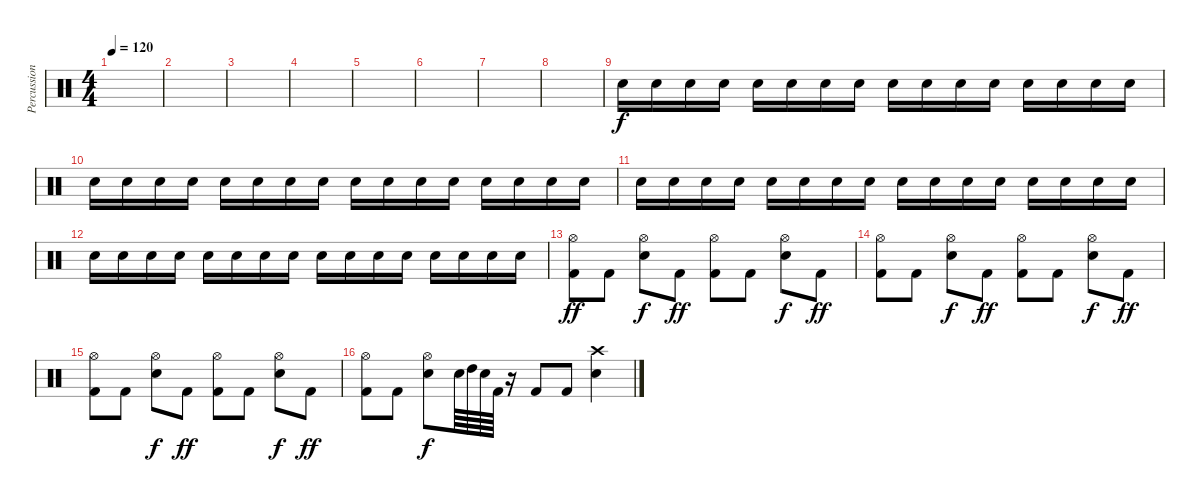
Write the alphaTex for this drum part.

\track ("Percussion" "Percussion") {instrument percussion}
\staff {score}
\articulation defaults
\ts (4 4)
\tempo 120
\clef neutral
\ks c
|
|
|
|
|
|
|
|
"Electric Snare (hit)".16 "Electric Snare (hit)".16 "Electric Snare (hit)".16 "Electric Snare (hit)".16 "Electric Snare (hit)".16 "Electric Snare (hit)".16 "Electric Snare (hit)".16 "Electric Snare (hit)".16 "Electric Snare (hit)".16 "Electric Snare (hit)".16 "Electric Snare (hit)".16 "Electric Snare (hit)".16 "Electric Snare (hit)".16 "Electric Snare (hit)".16 "Electric Snare (hit)".16 "Electric Snare (hit)".16 |
"Electric Snare (hit)".16 "Electric Snare (hit)".16 "Electric Snare (hit)".16 "Electric Snare (hit)".16 "Electric Snare (hit)".16 "Electric Snare (hit)".16 "Electric Snare (hit)".16 "Electric Snare (hit)".16 "Electric Snare (hit)".16 "Electric Snare (hit)".16 "Electric Snare (hit)".16 "Electric Snare (hit)".16 "Electric Snare (hit)".16 "Electric Snare (hit)".16 "Electric Snare (hit)".16 "Electric Snare (hit)".16 |
"Electric Snare (hit)".16 "Electric Snare (hit)".16 "Electric Snare (hit)".16 "Electric Snare (hit)".16 "Electric Snare (hit)".16 "Electric Snare (hit)".16 "Electric Snare (hit)".16 "Electric Snare (hit)".16 "Electric Snare (hit)".16 "Electric Snare (hit)".16 "Electric Snare (hit)".16 "Electric Snare (hit)".16 "Electric Snare (hit)".16 "Electric Snare (hit)".16 "Electric Snare (hit)".16 "Electric Snare (hit)".16 |
"Electric Snare (hit)".16 "Electric Snare (hit)".16 "Electric Snare (hit)".16 "Electric Snare (hit)".16 "Electric Snare (hit)".16 "Electric Snare (hit)".16 "Electric Snare (hit)".16 "Electric Snare (hit)".16 "Electric Snare (hit)".16 "Electric Snare (hit)".16 "Electric Snare (hit)".16 "Electric Snare (hit)".16 "Electric Snare (hit)".16 "Electric Snare (hit)".16 "Electric Snare (hit)".16 "Electric Snare (hit)".16 |
("Hi-Hat (open)" "Kick (hit) 2").8{dy ff} "Kick (hit) 2".8 ("Hi-Hat (open)" "Electric Snare (hit)").8{dy f} "Kick (hit) 2".8{dy ff} ("Hi-Hat (open)" "Kick (hit) 2").8 "Kick (hit) 2".8 ("Hi-Hat (open)" "Electric Snare (hit)").8{dy f} "Kick (hit) 2".8{dy ff} |
("Hi-Hat (open)" "Kick (hit) 2").8 "Kick (hit) 2".8 ("Hi-Hat (open)" "Electric Snare (hit)").8{dy f} "Kick (hit) 2".8{dy ff} ("Hi-Hat (open)" "Kick (hit) 2").8 "Kick (hit) 2".8 ("Hi-Hat (open)" "Electric Snare (hit)").8{dy f} "Kick (hit) 2".8{dy ff} |
("Hi-Hat (open)" "Kick (hit) 2").8 "Kick (hit) 2".8 ("Hi-Hat (open)" "Electric Snare (hit)").8{dy f} "Kick (hit) 2".8{dy ff} ("Hi-Hat (open)" "Kick (hit) 2").8 "Kick (hit) 2".8 ("Hi-Hat (open)" "Electric Snare (hit)").8{dy f} "Kick (hit) 2".8{dy ff} |
("Hi-Hat (open)" "Kick (hit) 2").8 "Kick (hit) 2".8 ("Hi-Hat (open)" "Electric Snare (hit)").8{dy f} "Electric Snare (hit)".64 "High Tom (hit)".64 "Electric Snare (hit)".64 "Kick (hit) 2".64 r.16 "Kick (hit) 2".8 "Kick (hit) 2".8 ("Crash high (hit)" "Electric Snare (hit)").4
